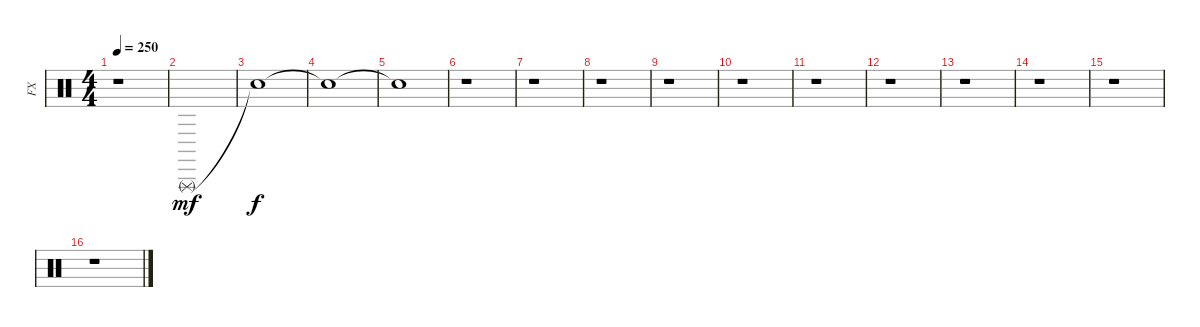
\track ("FX" "FX") {instrument percussion}
\staff {score}
\articulation defaults
\ts (4 4)
\tempo 250
\clef neutral
\ks c
r.1{dy f} |
"Triangle (rnute)".1{dy mf} |
"Snare (hit)"{t}.1{dy f} |
"Snare (hit)"{t}.1 |
"Snare (hit)"{t}.1 |
r.1 |
r.1 |
r.1 |
r.1 |
r.1 |
r.1 |
r.1 |
r.1 |
r.1 |
r.1 |
r.1
